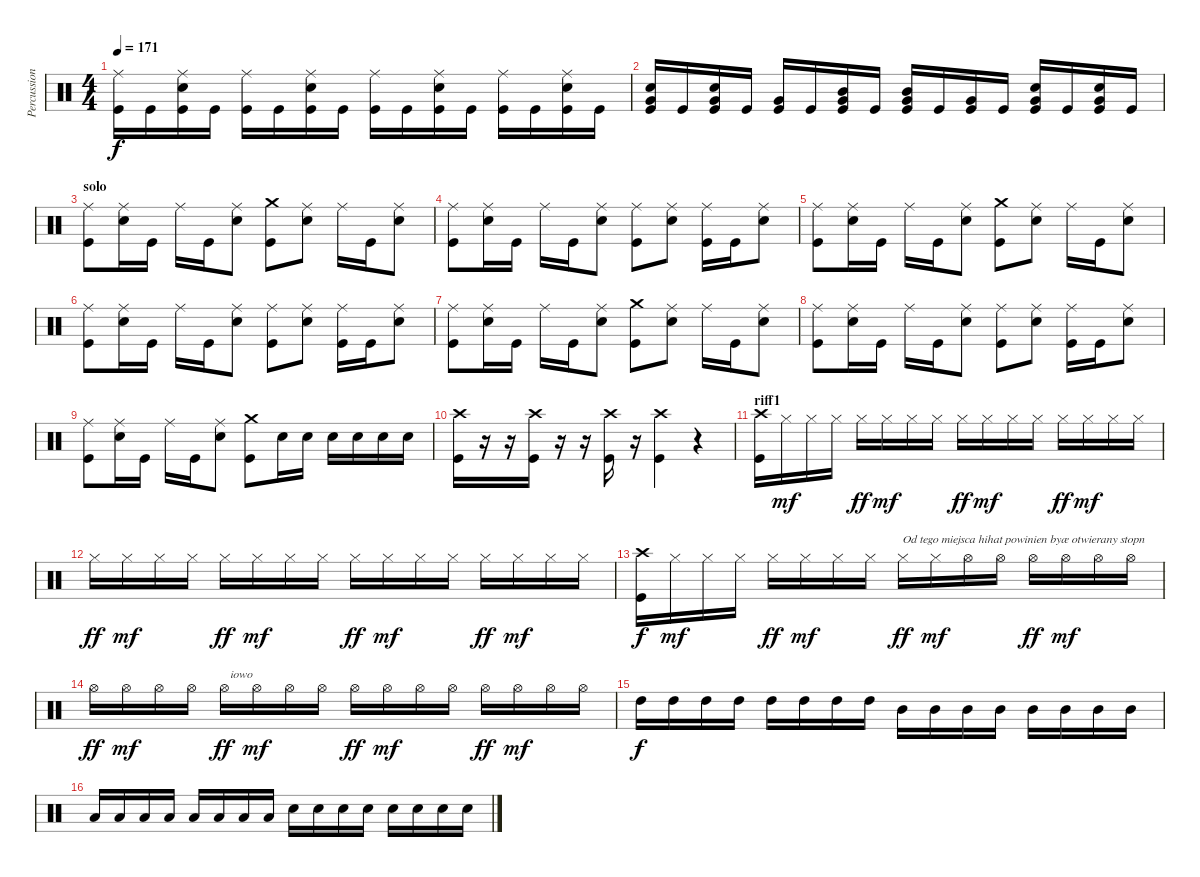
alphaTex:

\track ("Percussion" "Percussion") {instrument percussion}
\staff {score}
\articulation defaults
\ts (4 4)
\tempo 171
\clef neutral
\ks c
("Kick (hit)" "Ride (middle)").16{dy f} "Kick (hit)".16 ("Kick (hit)" "Ride (middle)" "Snare (hit) 2").16 "Kick (hit)".16 ("Kick (hit)" "Ride (middle)").16 "Kick (hit)".16 ("Kick (hit)" "Ride (middle)" "Snare (hit) 2").16 "Kick (hit)".16 ("Kick (hit)" "Ride (middle)").16 "Kick (hit)".16 ("Kick (hit)" "Ride (middle)" "Snare (hit) 2").16 "Kick (hit)".16 ("Kick (hit)" "Ride (middle)").16 "Kick (hit)".16 ("Kick (hit)" "Ride (middle)" "Snare (hit) 2").16 "Kick (hit)".16 |
("Kick (hit)" "Snare (hit) 2" "Very Low Tom (hit)").16 "Kick (hit)".16 ("Kick (hit)" "Snare (hit) 2" "Very Low Tom (hit)").16 "Kick (hit)".16 ("Kick (hit)" "Very Low Tom (hit)").16 "Kick (hit)".16 ("Kick (hit)" "Very Low Tom (hit)" "Mid Tom (hit)").16 "Kick (hit)".16 ("Kick (hit)" "Very Low Tom (hit)" "Mid Tom (hit)").16 "Kick (hit)".16 ("Kick (hit)" "Very Low Tom (hit)").16 "Kick (hit)".16 ("Kick (hit)" "Snare (hit) 2" "Very Low Tom (hit)").16 "Kick (hit)".16 ("Kick (hit)" "Snare (hit) 2" "Very Low Tom (hit)").16 "Kick (hit)".16 |
\section ("" "solo")
("Kick (hit)" "Ride (middle)").8 ("Ride (middle)" "Snare (hit) 2").16 "Kick (hit)".16 "Ride (middle)".16 "Kick (hit)".16 ("Ride (middle)" "Snare (hit) 2").8 ("Kick (hit)" "Crash medium (hit)").8 ("Ride (middle)" "Snare (hit) 2").8 "Ride (middle)".16 "Kick (hit)".16 ("Ride (middle)" "Snare (hit) 2").8 |
("Kick (hit)" "Ride (middle)").8 ("Ride (middle)" "Snare (hit) 2").16 "Kick (hit)".16 "Ride (middle)".16 "Kick (hit)".16 ("Ride (middle)" "Snare (hit) 2").8 ("Kick (hit)" "Ride (middle)").8 ("Ride (middle)" "Snare (hit) 2").8 ("Kick (hit)" "Ride (middle)").16 "Kick (hit)".16 ("Ride (middle)" "Snare (hit) 2").8 |
("Kick (hit)" "Ride (middle)").8 ("Ride (middle)" "Snare (hit) 2").16 "Kick (hit)".16 "Ride (middle)".16 "Kick (hit)".16 ("Ride (middle)" "Snare (hit) 2").8 ("Kick (hit)" "Crash medium (hit)").8 ("Ride (middle)" "Snare (hit) 2").8 "Ride (middle)".16 "Kick (hit)".16 ("Ride (middle)" "Snare (hit) 2").8 |
("Kick (hit)" "Ride (middle)").8 ("Ride (middle)" "Snare (hit) 2").16 "Kick (hit)".16 "Ride (middle)".16 "Kick (hit)".16 ("Ride (middle)" "Snare (hit) 2").8 ("Kick (hit)" "Ride (middle)").8 ("Ride (middle)" "Snare (hit) 2").8 ("Kick (hit)" "Ride (middle)").16 "Kick (hit)".16 ("Ride (middle)" "Snare (hit) 2").8 |
("Kick (hit)" "Ride (middle)").8 ("Ride (middle)" "Snare (hit) 2").16 "Kick (hit)".16 "Ride (middle)".16 "Kick (hit)".16 ("Ride (middle)" "Snare (hit) 2").8 ("Kick (hit)" "Crash medium (hit)").8 ("Ride (middle)" "Snare (hit) 2").8 "Ride (middle)".16 "Kick (hit)".16 ("Ride (middle)" "Snare (hit) 2").8 |
("Kick (hit)" "Ride (middle)").8 ("Ride (middle)" "Snare (hit) 2").16 "Kick (hit)".16 "Ride (middle)".16 "Kick (hit)".16 ("Ride (middle)" "Snare (hit) 2").8 ("Kick (hit)" "Ride (middle)").8 ("Ride (middle)" "Snare (hit) 2").8 ("Kick (hit)" "Ride (middle)").16 "Kick (hit)".16 ("Ride (middle)" "Snare (hit) 2").8 |
("Kick (hit)" "Ride (middle)").8 ("Ride (middle)" "Snare (hit) 2").16 "Kick (hit)".16 "Ride (middle)".16 "Kick (hit)".16 ("Ride (middle)" "Snare (hit) 2").8 ("Kick (hit)" "Crash medium (hit)").8 "Snare (hit) 2".16 "Snare (hit) 2".16 "Snare (hit) 2".16 "Snare (hit) 2".16 "Snare (hit) 2".16 "Snare (hit) 2".16 |
("Kick (hit)" "Crash high (hit)").16 r.16 r.16 ("Kick (hit)" "Crash high (hit)").16 r.16 r.16 ("Kick (hit)" "Crash high (hit)").16 r.16 ("Kick (hit)" "Crash high (hit)").4 r.4 |
\section ("" "riff1")
("Kick (hit)" "Crash high (hit)").16 "Hi-Hat (closed)".16{dy mf} "Hi-Hat (closed)".16 "Hi-Hat (closed)".16 "Hi-Hat (closed)".16{dy ff} "Hi-Hat (closed)".16{dy mf} "Hi-Hat (closed)".16 "Hi-Hat (closed)".16 "Hi-Hat (closed)".16{dy ff} "Hi-Hat (closed)".16{dy mf} "Hi-Hat (closed)".16 "Hi-Hat (closed)".16 "Hi-Hat (closed)".16{dy ff} "Hi-Hat (closed)".16{dy mf} "Hi-Hat (closed)".16 "Hi-Hat (closed)".16 |
"Hi-Hat (closed)".16{dy ff} "Hi-Hat (closed)".16{dy mf} "Hi-Hat (closed)".16 "Hi-Hat (closed)".16 "Hi-Hat (closed)".16{dy ff} "Hi-Hat (closed)".16{dy mf} "Hi-Hat (closed)".16 "Hi-Hat (closed)".16 "Hi-Hat (closed)".16{dy ff} "Hi-Hat (closed)".16{dy mf} "Hi-Hat (closed)".16 "Hi-Hat (closed)".16 "Hi-Hat (closed)".16{dy ff} "Hi-Hat (closed)".16{dy mf} "Hi-Hat (closed)".16 "Hi-Hat (closed)".16 |
("Kick (hit)" "Crash high (hit)").16{dy f} "Hi-Hat (closed)".16{dy mf} "Hi-Hat (closed)".16 "Hi-Hat (closed)".16 "Hi-Hat (closed)".16{dy ff} "Hi-Hat (closed)".16{dy mf} "Hi-Hat (closed)".16 "Hi-Hat (closed)".16 "Hi-Hat (closed)".16{txt "Od tego miejsca hihat powinien byæ otwierany stopn" dy ff} "Hi-Hat (closed)".16{dy mf} "Hi-Hat (open)".16 "Hi-Hat (open)".16 "Hi-Hat (open)".16{dy ff} "Hi-Hat (open)".16{dy mf} "Hi-Hat (open)".16 "Hi-Hat (open)".16 |
"Hi-Hat (open)".16{dy ff} "Hi-Hat (open)".16{dy mf} "Hi-Hat (open)".16 "Hi-Hat (open)".16 "Hi-Hat (open)".16{txt "  iowo" dy ff} "Hi-Hat (open)".16{dy mf} "Hi-Hat (open)".16 "Hi-Hat (open)".16 "Hi-Hat (open)".16{dy ff} "Hi-Hat (open)".16{dy mf} "Hi-Hat (open)".16 "Hi-Hat (open)".16 "Hi-Hat (open)".16{dy ff} "Hi-Hat (open)".16{dy mf} "Hi-Hat (open)".16 "Hi-Hat (open)".16 |
"High Tom (hit)".16{dy f} "High Tom (hit)".16 "High Tom (hit)".16 "High Tom (hit)".16 "High Tom (hit)".16 "High Tom (hit)".16 "High Tom (hit)".16 "High Tom (hit)".16 "Mid Tom (hit)".16 "Mid Tom (hit)".16 "Mid Tom (hit)".16 "Mid Tom (hit)".16 "Mid Tom (hit)".16 "Mid Tom (hit)".16 "Mid Tom (hit)".16 "Mid Tom (hit)".16 |
"Low Tom (hit)".16 "Low Tom (hit)".16 "Low Tom (hit)".16 "Low Tom (hit)".16 "Low Tom (hit)".16 "Low Tom (hit)".16 "Low Tom (hit)".16 "Low Tom (hit)".16 "Snare (hit) 2".16 "Snare (hit) 2".16 "Snare (hit) 2".16 "Snare (hit) 2".16 "Snare (hit) 2".16 "Snare (hit) 2".16 "Snare (hit) 2".16 "Snare (hit) 2".16
